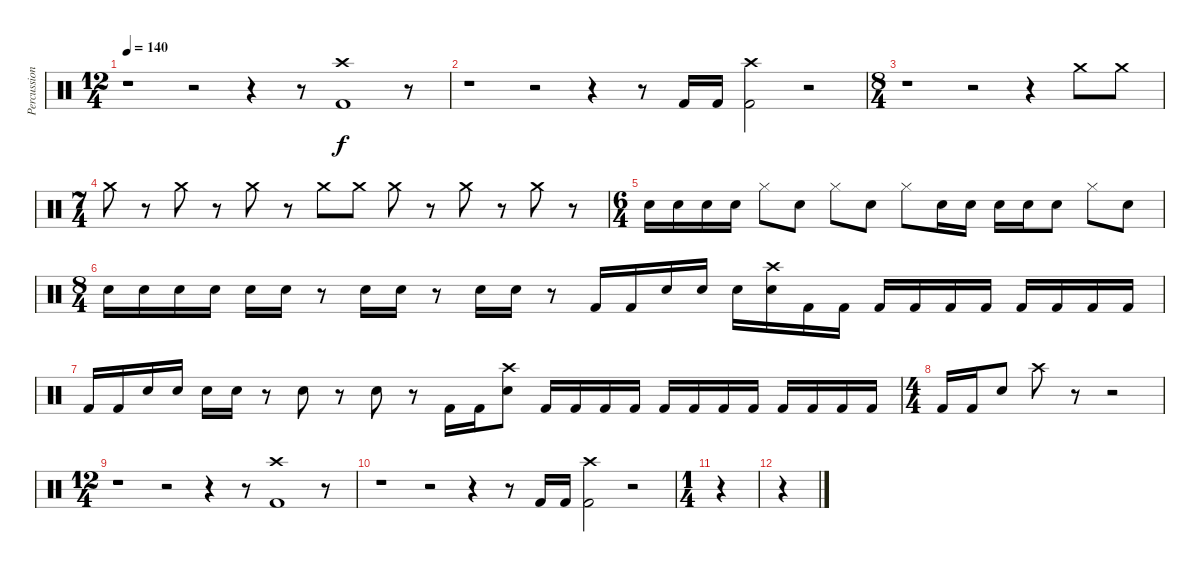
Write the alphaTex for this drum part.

\track ("Percussions" "Percussion") {instrument percussion}
\staff {score}
\articulation defaults
\ts (12 4)
\tempo 140
\clef neutral
\ks c
r.1{dy f} r.2 r.4 r.8 ("Crash high (hit)" "Kick (hit) 2").1 r.8 |
r.1 r.2 r.4 r.8 "Kick (hit) 2".16 "Kick (hit) 2".16 ("Crash high (hit)" "Kick (hit) 2").2 r.2 |
\ts (8 4)
r.1 r.2 r.4 "Crash medium (hit)".8 "Crash medium (hit)".8 |
\ts (7 4)
"Crash medium (hit)".8 r.8 "Crash medium (hit)".8 r.8 "Crash medium (hit)".8 r.8 "Crash medium (hit)".8 "Crash medium (hit)".8 "Crash medium (hit)".8 r.8 "Crash medium (hit)".8 r.8 "Crash medium (hit)".8 r.8 |
\ts (6 4)
"Snare (hit) 2".16 "Snare (hit) 2".16 "Snare (hit) 2".16 "Snare (hit) 2".16 "Hi-Hat (closed)".8 "Snare (hit) 2".8 "Hi-Hat (closed)".8 "Snare (hit) 2".8 "Hi-Hat (closed)".8 "Snare (hit) 2".16 "Snare (hit) 2".16 "Snare (hit) 2".16 "Snare (hit) 2".16 "Snare (hit) 2".8 "Hi-Hat (closed)".8 "Snare (hit) 2".8 |
\ts (8 4)
"Snare (hit) 2".16 "Snare (hit) 2".16 "Snare (hit) 2".16 "Snare (hit) 2".16 "Snare (hit) 2".16 "Snare (hit) 2".16 r.8 "Snare (hit) 2".16 "Snare (hit) 2".16 r.8 "Snare (hit) 2".16 "Snare (hit) 2".16 r.8 "Kick (hit) 2".16 "Kick (hit) 2".16 "Snare (hit) 2".16 "Snare (hit) 2".16 "Snare (hit) 2".16 ("Crash high (hit)" "Snare (hit) 2").16 "Kick (hit) 2".16 "Kick (hit) 2".16 "Kick (hit) 2".16 "Kick (hit) 2".16 "Kick (hit) 2".16 "Kick (hit) 2".16 "Kick (hit) 2".16 "Kick (hit) 2".16 "Kick (hit) 2".16 "Kick (hit) 2".16 |
"Kick (hit) 2".16 "Kick (hit) 2".16 "Snare (hit) 2".16 "Snare (hit) 2".16 "Snare (hit) 2".16 "Snare (hit) 2".16 r.8 "Snare (hit) 2".8 r.8 "Snare (hit) 2".8 r.8 "Kick (hit) 2".16 "Kick (hit) 2".16 ("Crash high (hit)" "Snare (hit) 2").8 "Kick (hit) 2".16 "Kick (hit) 2".16 "Kick (hit) 2".16 "Kick (hit) 2".16 "Kick (hit) 2".16 "Kick (hit) 2".16 "Kick (hit) 2".16 "Kick (hit) 2".16 "Kick (hit) 2".16 "Kick (hit) 2".16 "Kick (hit) 2".16 "Kick (hit) 2".16 |
\ts (4 4)
"Kick (hit) 2".16 "Kick (hit) 2".16 "Snare (hit) 2".8 "Crash high (hit)".8 r.8 r.2 |
\ts (12 4)
r.1 r.2 r.4 r.8 ("Crash high (hit)" "Kick (hit) 2").1 r.8 |
r.1 r.2 r.4 r.8 "Kick (hit) 2".16 "Kick (hit) 2".16 ("Crash high (hit)" "Kick (hit) 2").2 r.2 |
\ts (1 4)
r.4 |
r.4
